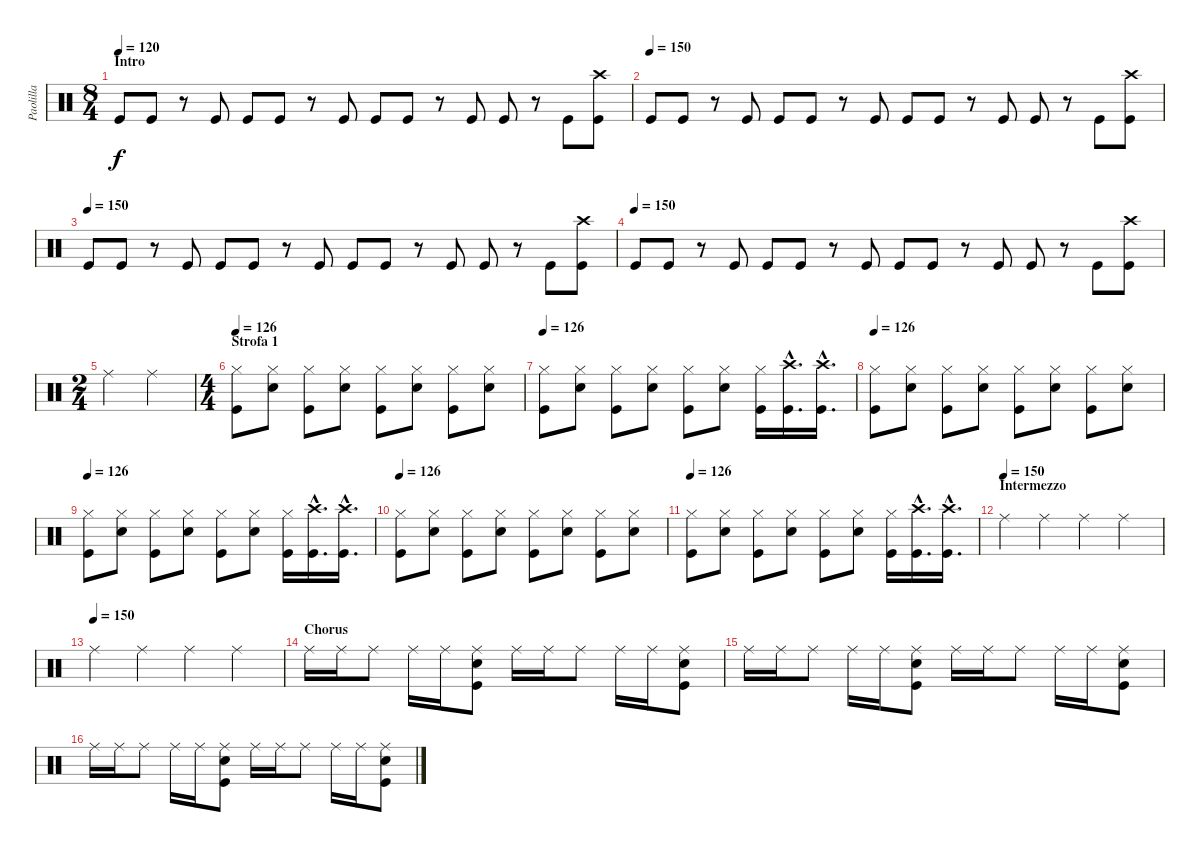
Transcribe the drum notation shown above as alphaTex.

\track ("Paolilla" "Paolilla") {instrument percussion}
\staff {score}
\articulation defaults
\ts (8 4)
\section ("" "Intro")
\tempo 120
\tempo 150
\tempo 120
\clef neutral
\ks c "Kick (hit)".8{dy f} "Kick (hit)".8
r.8 "Kick (hit)".8 "Kick (hit)".8 "Kick (hit)".8 r.8 "Kick (hit)".8 "Kick (hit)".8 "Kick (hit)".8 r.8 "Kick (hit)".8 "Kick (hit)".8 r.8 "Kick (hit)".8 ("Crash high (hit)" "Kick (hit)").8 |
\tempo (150)
"Kick (hit)".8 "Kick (hit)".8 r.8 "Kick (hit)".8 "Kick (hit)".8 "Kick (hit)".8 r.8 "Kick (hit)".8 "Kick (hit)".8 "Kick (hit)".8 r.8 "Kick (hit)".8 "Kick (hit)".8 r.8 "Kick (hit)".8 ("Crash high (hit)" "Kick (hit)").8 |
\tempo (150)
"Kick (hit)".8 "Kick (hit)".8 r.8 "Kick (hit)".8 "Kick (hit)".8 "Kick (hit)".8 r.8 "Kick (hit)".8 "Kick (hit)".8 "Kick (hit)".8 r.8 "Kick (hit)".8 "Kick (hit)".8 r.8 "Kick (hit)".8 ("Crash high (hit)" "Kick (hit)").8 |
\tempo (150)
"Kick (hit)".8 "Kick (hit)".8 r.8 "Kick (hit)".8 "Kick (hit)".8 "Kick (hit)".8 r.8 "Kick (hit)".8 "Kick (hit)".8 "Kick (hit)".8 r.8 "Kick (hit)".8 "Kick (hit)".8 r.8 "Kick (hit)".8 ("Crash high (hit)" "Kick (hit)").8 |
\ts (2 4)
"Ride (middle)".4 "Ride (middle)".4 |
\ts (4 4)
\section ("" "Strofa 1")
\tempo 126
("Hi-Hat (closed)" "Kick (hit)").8 ("Hi-Hat (closed)" "Snare (hit) 2").8 ("Hi-Hat (closed)" "Kick (hit)").8 ("Hi-Hat (closed)" "Snare (hit) 2").8 ("Hi-Hat (closed)" "Kick (hit)").8 ("Hi-Hat (closed)" "Snare (hit) 2").8 ("Hi-Hat (closed)" "Kick (hit)").8 ("Hi-Hat (closed)" "Snare (hit) 2").8 |
\tempo 126
("Hi-Hat (closed)" "Kick (hit)").8 ("Hi-Hat (closed)" "Snare (hit) 2").8 ("Hi-Hat (closed)" "Kick (hit)").8 ("Hi-Hat (closed)" "Snare (hit) 2").8 ("Hi-Hat (closed)" "Kick (hit)").8 ("Hi-Hat (closed)" "Snare (hit) 2").8 ("Hi-Hat (closed)" "Kick (hit)").16 ("Crash high (hit)"{hac} "Kick (hit)"{hac}).16{d} ("Crash high (hit)"{hac} "Kick (hit)"{hac}).16{d} |
\tempo 126
("Hi-Hat (closed)" "Kick (hit)").8 ("Hi-Hat (closed)" "Snare (hit) 2").8 ("Hi-Hat (closed)" "Kick (hit)").8 ("Hi-Hat (closed)" "Snare (hit) 2").8 ("Hi-Hat (closed)" "Kick (hit)").8 ("Hi-Hat (closed)" "Snare (hit) 2").8 ("Hi-Hat (closed)" "Kick (hit)").8 ("Hi-Hat (closed)" "Snare (hit) 2").8 |
\tempo 126
("Hi-Hat (closed)" "Kick (hit)").8 ("Hi-Hat (closed)" "Snare (hit) 2").8 ("Hi-Hat (closed)" "Kick (hit)").8 ("Hi-Hat (closed)" "Snare (hit) 2").8 ("Hi-Hat (closed)" "Kick (hit)").8 ("Hi-Hat (closed)" "Snare (hit) 2").8 ("Hi-Hat (closed)" "Kick (hit)").16 ("Crash high (hit)"{hac} "Kick (hit)"{hac}).16{d} ("Crash high (hit)"{hac} "Kick (hit)"{hac}).16{d} |
\tempo 126
("Hi-Hat (closed)" "Kick (hit)").8 ("Hi-Hat (closed)" "Snare (hit) 2").8 ("Hi-Hat (closed)" "Kick (hit)").8 ("Hi-Hat (closed)" "Snare (hit) 2").8 ("Hi-Hat (closed)" "Kick (hit)").8 ("Hi-Hat (closed)" "Snare (hit) 2").8 ("Hi-Hat (closed)" "Kick (hit)").8 ("Hi-Hat (closed)" "Snare (hit) 2").8 |
\tempo 126
("Hi-Hat (closed)" "Kick (hit)").8 ("Hi-Hat (closed)" "Snare (hit) 2").8 ("Hi-Hat (closed)" "Kick (hit)").8 ("Hi-Hat (closed)" "Snare (hit) 2").8 ("Hi-Hat (closed)" "Kick (hit)").8 ("Hi-Hat (closed)" "Snare (hit) 2").8 ("Hi-Hat (closed)" "Kick (hit)").16 ("Crash high (hit)"{hac} "Kick (hit)"{hac}).16{d} ("Crash high (hit)"{hac} "Kick (hit)"{hac}).16{d} |
\section ("" "Intermezzo")
\tempo (150)
"Ride (middle)".4 "Ride (middle)".4 "Ride (middle)".4 "Ride (middle)".4 |
\tempo (150)
"Ride (middle)".4 "Ride (middle)".4 "Ride (middle)".4 "Ride (middle)".4 |
\section ("" "Chorus")
"Ride (middle)".16 "Ride (middle)".16 "Ride (middle)".8 "Ride (middle)".16 "Ride (middle)".16 ("Ride (middle)" "Snare (hit) 2" "Kick (hit)").8 "Ride (middle)".16 "Ride (middle)".16 "Ride (middle)".8 "Ride (middle)".16 "Ride (middle)".16 ("Ride (middle)" "Snare (hit) 2" "Kick (hit)").8 |
"Ride (middle)".16 "Ride (middle)".16 "Ride (middle)".8 "Ride (middle)".16 "Ride (middle)".16 ("Ride (middle)" "Snare (hit) 2" "Kick (hit)").8 "Ride (middle)".16 "Ride (middle)".16 "Ride (middle)".8 "Ride (middle)".16 "Ride (middle)".16 ("Ride (middle)" "Snare (hit) 2" "Kick (hit)").8 |
"Ride (middle)".16 "Ride (middle)".16 "Ride (middle)".8 "Ride (middle)".16 "Ride (middle)".16 ("Ride (middle)" "Snare (hit) 2" "Kick (hit)").8 "Ride (middle)".16 "Ride (middle)".16 "Ride (middle)".8 "Ride (middle)".16 "Ride (middle)".16 ("Ride (middle)" "Snare (hit) 2" "Kick (hit)").8
